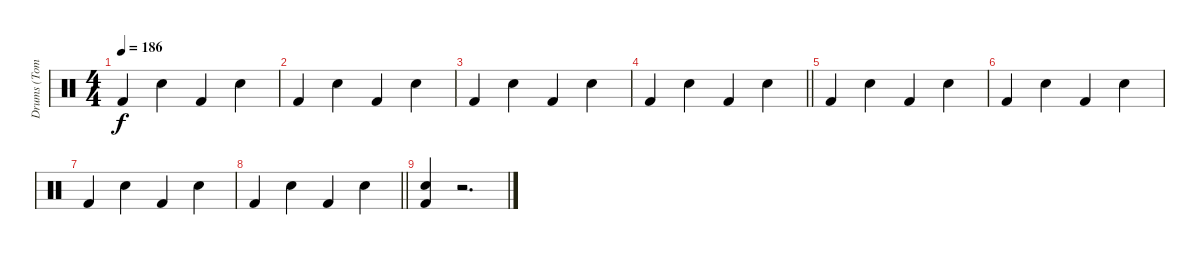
\track ("Drums (Tommy)" "Drums (Tom") {instrument percussion}
\staff {score}
\articulation defaults
\ts (4 4)
\tempo 186
\clef neutral
\ks c "Kick (hit) 2".4{dy f} "Electric Snare (hit)".4 "Kick (hit) 2".4 "Electric Snare (hit)".4
|
"Kick (hit) 2".4 "Electric Snare (hit)".4 "Kick (hit) 2".4 "Electric Snare (hit)".4 |
"Kick (hit) 2".4 "Electric Snare (hit)".4 "Kick (hit) 2".4 "Electric Snare (hit)".4 |
\barLineRight lightlight "Kick (hit) 2".4 "Electric Snare (hit)".4 "Kick (hit) 2".4 "Electric Snare (hit)".4
|
"Kick (hit) 2".4 "Electric Snare (hit)".4 "Kick (hit) 2".4 "Electric Snare (hit)".4 |
"Kick (hit) 2".4 "Electric Snare (hit)".4 "Kick (hit) 2".4 "Electric Snare (hit)".4 |
"Kick (hit) 2".4 "Electric Snare (hit)".4 "Kick (hit) 2".4 "Electric Snare (hit)".4 |
\barLineRight lightlight "Kick (hit) 2".4 "Electric Snare (hit)".4 "Kick (hit) 2".4 "Electric Snare (hit)".4
|
("Electric Snare (hit)" "Kick (hit) 2").4 r.2{d}
